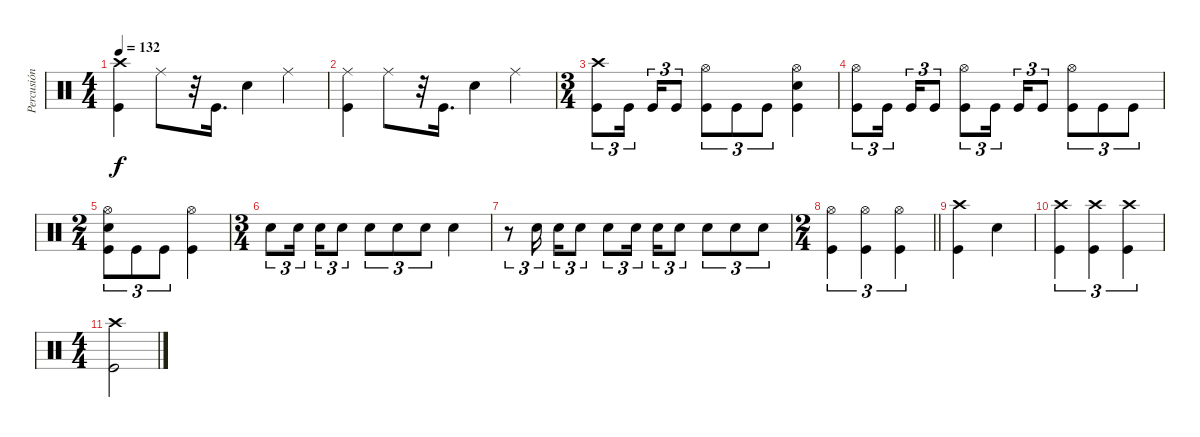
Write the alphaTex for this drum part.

\track ("Percusión" "Percusión") {instrument percussion}
\staff
\articulation defaults
\ts (4 4)
\tempo 132
\clef neutral
\ks c
("Kick (hit)" "Crash high (hit)").4{dy f} "Ride (middle)".8 r.32 "Kick (hit)".16{d} "Electric Snare (hit)".4 "Ride (middle)".4 |
("Kick (hit)" "Ride (middle)").4 "Ride (middle)".8 r.32 "Kick (hit)".16{d} "Electric Snare (hit)".4 "Ride (middle)".4 |
\ts (3 4)
("Kick (hit)" "Crash high (hit)").8{tu (3 2)} "Kick (hit)".16{tu (3 2) beam splitsecondary} "Kick (hit)".16{tu (3 2)} "Kick (hit)".8{tu (3 2)} ("Kick (hit)" "Hi-Hat (open)").8{tu (3 2)} "Kick (hit)".8{tu (3 2)} "Kick (hit)".8{tu (3 2)} ("Kick (hit)" "Electric Snare (hit)" "Hi-Hat (open)").4 |
("Kick (hit)" "Hi-Hat (open)").8{tu (3 2)} "Kick (hit)".16{tu (3 2) beam splitsecondary} "Kick (hit)".16{tu (3 2)} "Kick (hit)".8{tu (3 2)} ("Kick (hit)" "Hi-Hat (open)").8{tu (3 2)} "Kick (hit)".16{tu (3 2) beam splitsecondary} "Kick (hit)".16{tu (3 2)} "Kick (hit)".8{tu (3 2)} ("Kick (hit)" "Hi-Hat (open)").8{tu (3 2)} "Kick (hit)".8{tu (3 2)} "Kick (hit)".8{tu (3 2)} |
\ts (2 4)
("Kick (hit)" "Hi-Hat (open)" "Electric Snare (hit)").8{tu (3 2)} "Kick (hit)".8{tu (3 2)} "Kick (hit)".8{tu (3 2)} ("Kick (hit)" "Hi-Hat (open)").4 |
\ts (3 4)
"Electric Snare (hit)".8{tu (3 2)} "Electric Snare (hit)".16{tu (3 2) beam splitsecondary} "Electric Snare (hit)".16{tu (3 2)} "Electric Snare (hit)".8{tu (3 2)} "Electric Snare (hit)".8{tu (3 2)} "Electric Snare (hit)".8{tu (3 2)} "Electric Snare (hit)".8{tu (3 2)} "Electric Snare (hit)".4 |
r.8{tu (3 2)} "Electric Snare (hit)".16{tu (3 2) beam splitsecondary} "Electric Snare (hit)".16{tu (3 2)} "Electric Snare (hit)".8{tu (3 2)} "Electric Snare (hit)".8{tu (3 2)} "Electric Snare (hit)".16{tu (3 2) beam splitsecondary} "Electric Snare (hit)".16{tu (3 2)} "Electric Snare (hit)".8{tu (3 2)} "Electric Snare (hit)".8{tu (3 2)} "Electric Snare (hit)".8{tu (3 2)} "Electric Snare (hit)".8{tu (3 2)} |
\ts (2 4)
\barLineRight lightlight
("Kick (hit)" "Hi-Hat (open)").4{tu (3 2)} ("Kick (hit)" "Hi-Hat (open)").4{tu (3 2)} ("Kick (hit)" "Hi-Hat (open)").4{tu (3 2)} |
("Kick (hit)" "Crash high (hit)").4 "Electric Snare (hit)".4 |
("Kick (hit)" "Crash high (hit)").4{tu (3 2)} ("Kick (hit)" "Crash high (hit)").4{tu (3 2)} ("Kick (hit)" "Crash high (hit)").4{tu (3 2)} |
\ts (4 4)
("Kick (hit)" "Crash high (hit)").2
